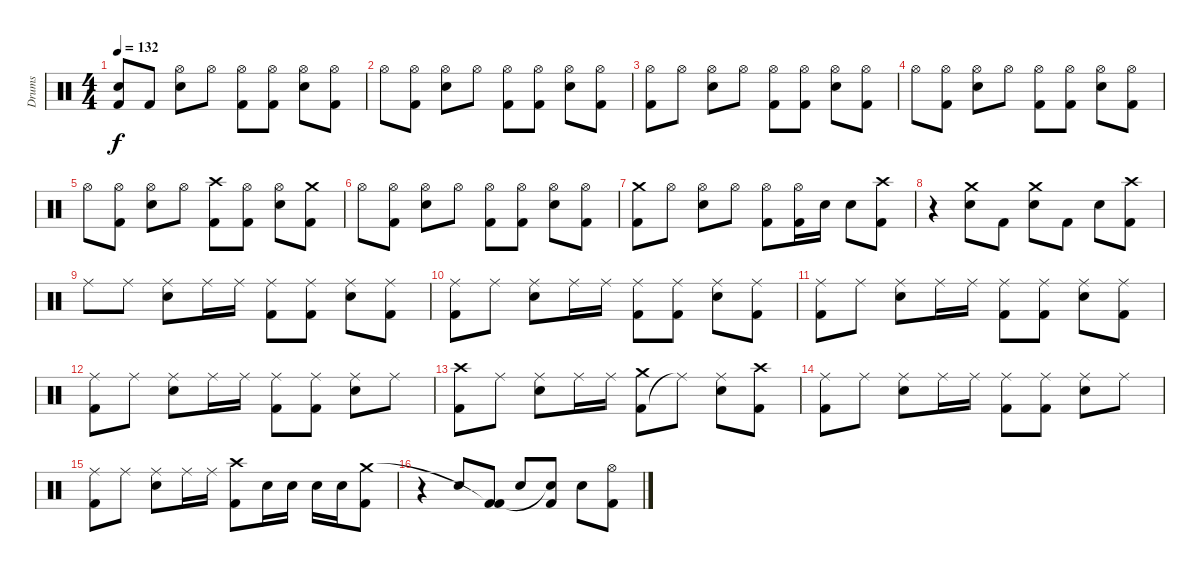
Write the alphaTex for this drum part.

\track ("Drums" "Drums") {instrument percussion}
\staff
\articulation defaults
\ts (4 4)
\tempo 132
\clef neutral
\ks c
("Kick (hit) 2"{t} "Snare (hit)"{t}).8{dy f} "Kick (hit) 2".8 ("Snare (hit) 2" "Hi-Hat (open)").8 "Hi-Hat (open)".8 ("Kick (hit) 2" "Hi-Hat (open)").8 ("Kick (hit) 2" "Hi-Hat (open)").8 ("Snare (hit) 2" "Hi-Hat (open)").8 ("Kick (hit) 2" "Hi-Hat (open)").8 |
"Hi-Hat (open)".8 ("Kick (hit) 2" "Hi-Hat (open)").8 ("Snare (hit) 2" "Hi-Hat (open)").8 "Hi-Hat (open)".8 ("Kick (hit) 2" "Hi-Hat (open)").8 ("Kick (hit) 2" "Hi-Hat (open)").8 ("Snare (hit) 2" "Hi-Hat (open)").8 ("Kick (hit) 2" "Hi-Hat (open)").8 |
("Kick (hit) 2" "Hi-Hat (open)").8 "Hi-Hat (open)".8 ("Snare (hit) 2" "Hi-Hat (open)").8 "Hi-Hat (open)".8 ("Kick (hit) 2" "Hi-Hat (open)").8 ("Kick (hit) 2" "Hi-Hat (open)").8 ("Snare (hit) 2" "Hi-Hat (open)").8 ("Kick (hit) 2" "Hi-Hat (open)").8 |
"Hi-Hat (open)".8 ("Kick (hit) 2" "Hi-Hat (open)").8 ("Snare (hit) 2" "Hi-Hat (open)").8 "Hi-Hat (open)".8 ("Kick (hit) 2" "Hi-Hat (open)").8 ("Kick (hit) 2" "Hi-Hat (open)").8 ("Snare (hit) 2" "Hi-Hat (open)").8 ("Kick (hit) 2" "Hi-Hat (open)").8 |
"Hi-Hat (open)".8 ("Kick (hit) 2" "Hi-Hat (open)").8 ("Snare (hit) 2" "Hi-Hat (open)").8 "Hi-Hat (open)".8 ("Kick (hit) 2" "Crash high (hit)").8 ("Kick (hit) 2" "Hi-Hat (open)").8 ("Snare (hit) 2" "Hi-Hat (open)").8 ("Kick (hit) 2" "Crash medium (hit)").8 |
"Hi-Hat (open)".8 ("Kick (hit) 2" "Hi-Hat (open)").8 ("Snare (hit) 2" "Hi-Hat (open)").8 "Hi-Hat (open)".8 ("Kick (hit) 2" "Hi-Hat (open)").8 ("Kick (hit) 2" "Hi-Hat (open)").8 ("Snare (hit) 2" "Hi-Hat (open)").8 ("Kick (hit) 2" "Hi-Hat (open)").8 |
("Kick (hit) 2" "Crash medium (hit)").8 "Hi-Hat (open)".8 ("Snare (hit) 2" "Hi-Hat (open)").8 "Hi-Hat (open)".8 ("Kick (hit) 2" "Hi-Hat (open)").8 ("Kick (hit) 2" "Hi-Hat (open)").16 "Snare (hit) 2".16 "Snare (hit) 2".8 ("Kick (hit) 2" "Crash high (hit)").8 |
r.4 ("Snare (hit) 2" "Crash medium (hit)").8 "Kick (hit) 2".8 ("Snare (hit) 2" "Crash medium (hit)").8 "Kick (hit) 2".8 "Snare (hit) 2".8 ("Kick (hit) 2" "Crash high (hit)").8 |
"Ride (middle)".8 "Ride (middle)".8 ("Snare (hit) 2" "Ride (middle)").8 "Ride (middle)".16 "Ride (middle)".16 ("Kick (hit) 2" "Ride (middle)").8 ("Kick (hit) 2" "Ride (middle)").8 ("Snare (hit) 2" "Ride (middle)").8 ("Kick (hit) 2" "Ride (middle)").8 |
("Kick (hit) 2" "Ride (middle)").8 "Ride (middle)".8 ("Snare (hit) 2" "Ride (middle)").8 "Ride (middle)".16 "Ride (middle)".16 ("Kick (hit) 2" "Ride (middle)").8 ("Kick (hit) 2" "Ride (middle)").8 ("Snare (hit) 2" "Ride (middle)").8 ("Kick (hit) 2" "Ride (middle)").8 |
("Kick (hit) 2" "Ride (middle)").8 "Ride (middle)".8 ("Snare (hit) 2" "Ride (middle)").8 "Ride (middle)".16 "Ride (middle)".16 ("Kick (hit) 2" "Ride (middle)").8 ("Kick (hit) 2" "Ride (middle)").8 ("Snare (hit) 2" "Ride (middle)").8 ("Kick (hit) 2" "Ride (middle)").8 |
("Kick (hit) 2" "Ride (middle)").8 "Ride (middle)".8 ("Snare (hit) 2" "Ride (middle)").8 "Ride (middle)".16 "Ride (middle)".16 ("Kick (hit) 2" "Ride (middle)").8 ("Kick (hit) 2" "Ride (middle)").8 ("Snare (hit) 2" "Ride (middle)").8 "Ride (middle)".8 |
("Kick (hit) 2" "Crash high (hit)").8 "Ride (middle)".8 ("Snare (hit) 2" "Ride (middle)").8 "Ride (middle)".16 "Ride (middle)".16 ("Kick (hit) 2" "Crash medium (hit)").8 "Ride (middle)"{t}.8 ("Snare (hit) 2" "Ride (middle)").8 ("Kick (hit) 2" "Crash high (hit)").8 |
("Kick (hit) 2" "Ride (middle)").8 "Ride (middle)".8 ("Snare (hit) 2" "Ride (middle)").8 "Ride (middle)".16 "Ride (middle)".16 ("Kick (hit) 2" "Ride (middle)").8 ("Kick (hit) 2" "Ride (middle)").8 ("Snare (hit) 2" "Ride (middle)").8 "Ride (middle)".8 |
("Kick (hit) 2" "Ride (middle)").8 "Ride (middle)".8 ("Snare (hit) 2" "Ride (middle)").8 "Ride (middle)".16 "Ride (middle)".16 ("Kick (hit) 2" "Crash high (hit)").8 "Snare (hit) 2".16 "Snare (hit) 2".16 "Snare (hit) 2".16 "Snare (hit) 2".16 ("Kick (hit) 2" "Crash medium (hit)").8 |
r.4 "Snare (hit) 2".8 ("Kick (hit) 2" "Kick (hit) 2"{t}).8 "Snare (hit) 2".8 ("Kick (hit) 2" "Snare (hit)"{t}).8 "Snare (hit) 2".8 ("Kick (hit) 2" "Hi-Hat (open)").8
